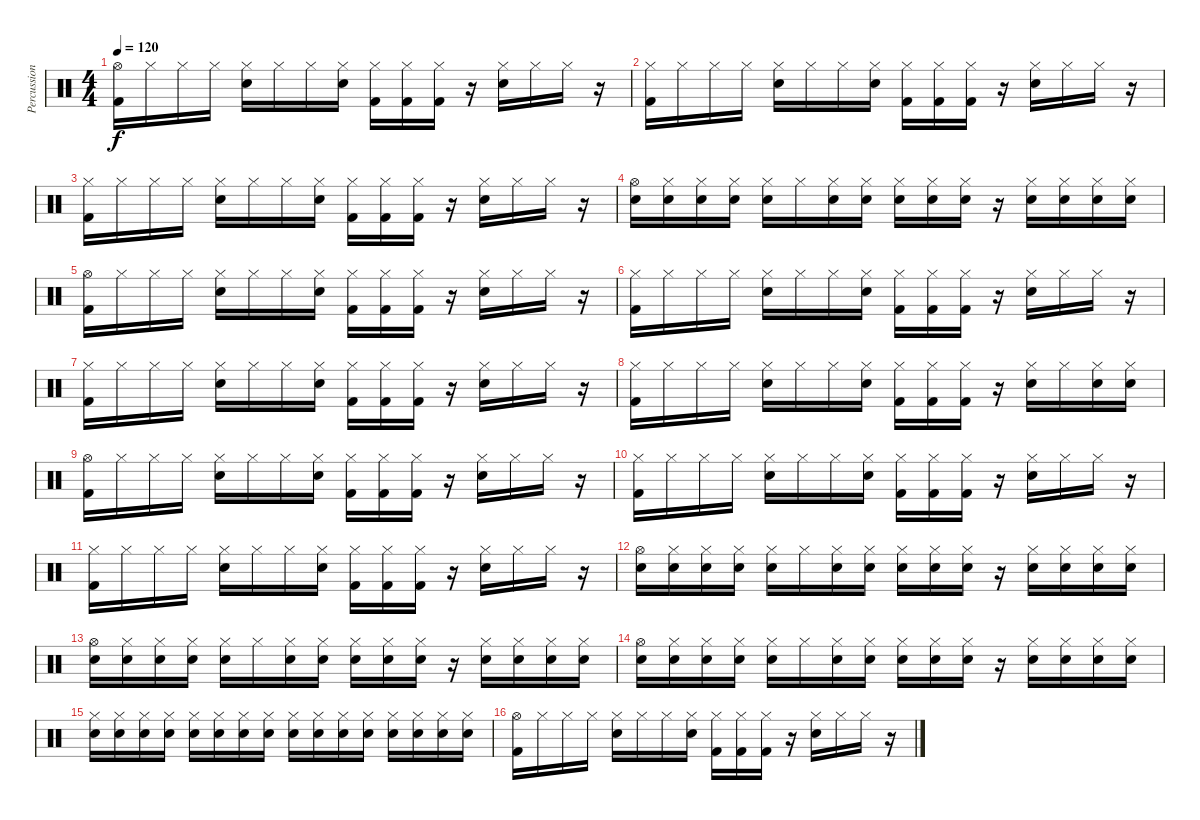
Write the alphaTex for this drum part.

\track ("Percussion" "Percussion") {instrument percussion}
\staff {score}
\articulation defaults
\ts (4 4)
\tempo 120
\clef neutral
\ks c
("Hi-Hat (open)" "Kick (hit) 2").16{dy f} "Hi-Hat (closed)".16 "Hi-Hat (closed)".16 "Hi-Hat (closed)".16 ("Hi-Hat (closed)" "Snare (hit) 2").16 "Hi-Hat (closed)".16 "Hi-Hat (closed)".16 ("Hi-Hat (closed)" "Snare (hit) 2").16 ("Hi-Hat (closed)" "Kick (hit) 2").16 ("Hi-Hat (closed)" "Kick (hit) 2").16 ("Hi-Hat (closed)" "Kick (hit) 2").16 r.16 ("Hi-Hat (closed)" "Snare (hit) 2").16 "Hi-Hat (closed)".16 "Hi-Hat (closed)".16 r.16 |
("Hi-Hat (closed)" "Kick (hit) 2").16 "Hi-Hat (closed)".16 "Hi-Hat (closed)".16 "Hi-Hat (closed)".16 ("Hi-Hat (closed)" "Snare (hit) 2").16 "Hi-Hat (closed)".16 "Hi-Hat (closed)".16 ("Hi-Hat (closed)" "Snare (hit) 2").16 ("Hi-Hat (closed)" "Kick (hit) 2").16 ("Hi-Hat (closed)" "Kick (hit) 2").16 ("Hi-Hat (closed)" "Kick (hit) 2").16 r.16 ("Hi-Hat (closed)" "Snare (hit) 2").16 "Hi-Hat (closed)".16 "Hi-Hat (closed)".16 r.16 |
("Hi-Hat (closed)" "Kick (hit) 2").16 "Hi-Hat (closed)".16 "Hi-Hat (closed)".16 "Hi-Hat (closed)".16 ("Hi-Hat (closed)" "Snare (hit) 2").16 "Hi-Hat (closed)".16 "Hi-Hat (closed)".16 ("Hi-Hat (closed)" "Snare (hit) 2").16 ("Hi-Hat (closed)" "Kick (hit) 2").16 ("Hi-Hat (closed)" "Kick (hit) 2").16 ("Hi-Hat (closed)" "Kick (hit) 2").16 r.16 ("Hi-Hat (closed)" "Snare (hit) 2").16 "Hi-Hat (closed)".16 "Hi-Hat (closed)".16 r.16 |
("Hi-Hat (open)" "Snare (hit) 2").16 ("Hi-Hat (closed)" "Snare (hit) 2").16 ("Hi-Hat (closed)" "Snare (hit) 2").16 ("Hi-Hat (closed)" "Snare (hit) 2").16 ("Hi-Hat (closed)" "Snare (hit) 2").16 "Hi-Hat (closed)".16 ("Hi-Hat (closed)" "Snare (hit) 2").16 ("Hi-Hat (closed)" "Snare (hit) 2").16 ("Hi-Hat (closed)" "Snare (hit) 2").16 ("Hi-Hat (closed)" "Snare (hit) 2").16 ("Hi-Hat (closed)" "Snare (hit) 2").16 r.16 ("Hi-Hat (closed)" "Snare (hit) 2").16 ("Hi-Hat (closed)" "Snare (hit) 2").16 ("Hi-Hat (closed)" "Snare (hit) 2").16 ("Hi-Hat (closed)" "Snare (hit) 2").16 |
("Hi-Hat (open)" "Kick (hit) 2").16 "Hi-Hat (closed)".16 "Hi-Hat (closed)".16 "Hi-Hat (closed)".16 ("Hi-Hat (closed)" "Snare (hit) 2").16 "Hi-Hat (closed)".16 "Hi-Hat (closed)".16 ("Hi-Hat (closed)" "Snare (hit) 2").16 ("Hi-Hat (closed)" "Kick (hit) 2").16 ("Hi-Hat (closed)" "Kick (hit) 2").16 ("Hi-Hat (closed)" "Kick (hit) 2").16 r.16 ("Hi-Hat (closed)" "Snare (hit) 2").16 "Hi-Hat (closed)".16 "Hi-Hat (closed)".16 r.16 |
("Hi-Hat (closed)" "Kick (hit) 2").16 "Hi-Hat (closed)".16 "Hi-Hat (closed)".16 "Hi-Hat (closed)".16 ("Hi-Hat (closed)" "Snare (hit) 2").16 "Hi-Hat (closed)".16 "Hi-Hat (closed)".16 ("Hi-Hat (closed)" "Snare (hit) 2").16 ("Hi-Hat (closed)" "Kick (hit) 2").16 ("Hi-Hat (closed)" "Kick (hit) 2").16 ("Hi-Hat (closed)" "Kick (hit) 2").16 r.16 ("Hi-Hat (closed)" "Snare (hit) 2").16 "Hi-Hat (closed)".16 "Hi-Hat (closed)".16 r.16 |
("Hi-Hat (closed)" "Kick (hit) 2").16 "Hi-Hat (closed)".16 "Hi-Hat (closed)".16 "Hi-Hat (closed)".16 ("Hi-Hat (closed)" "Snare (hit) 2").16 "Hi-Hat (closed)".16 "Hi-Hat (closed)".16 ("Hi-Hat (closed)" "Snare (hit) 2").16 ("Hi-Hat (closed)" "Kick (hit) 2").16 ("Hi-Hat (closed)" "Kick (hit) 2").16 ("Hi-Hat (closed)" "Kick (hit) 2").16 r.16 ("Hi-Hat (closed)" "Snare (hit) 2").16 "Hi-Hat (closed)".16 "Hi-Hat (closed)".16 r.16 |
("Hi-Hat (closed)" "Kick (hit) 2").16 "Hi-Hat (closed)".16 "Hi-Hat (closed)".16 "Hi-Hat (closed)".16 ("Hi-Hat (closed)" "Snare (hit) 2").16 "Hi-Hat (closed)".16 "Hi-Hat (closed)".16 ("Hi-Hat (closed)" "Snare (hit) 2").16 ("Hi-Hat (closed)" "Kick (hit) 2").16 ("Hi-Hat (closed)" "Kick (hit) 2").16 ("Hi-Hat (closed)" "Kick (hit) 2").16 r.16 ("Hi-Hat (closed)" "Snare (hit) 2").16 "Hi-Hat (closed)".16 ("Hi-Hat (closed)" "Snare (hit) 2").16 ("Hi-Hat (closed)" "Snare (hit) 2").16 |
("Hi-Hat (open)" "Kick (hit) 2").16 "Hi-Hat (closed)".16 "Hi-Hat (closed)".16 "Hi-Hat (closed)".16 ("Hi-Hat (closed)" "Snare (hit) 2").16 "Hi-Hat (closed)".16 "Hi-Hat (closed)".16 ("Hi-Hat (closed)" "Snare (hit) 2").16 ("Hi-Hat (closed)" "Kick (hit) 2").16 ("Hi-Hat (closed)" "Kick (hit) 2").16 ("Hi-Hat (closed)" "Kick (hit) 2").16 r.16 ("Hi-Hat (closed)" "Snare (hit) 2").16 "Hi-Hat (closed)".16 "Hi-Hat (closed)".16 r.16 |
("Hi-Hat (closed)" "Kick (hit) 2").16 "Hi-Hat (closed)".16 "Hi-Hat (closed)".16 "Hi-Hat (closed)".16 ("Hi-Hat (closed)" "Snare (hit) 2").16 "Hi-Hat (closed)".16 "Hi-Hat (closed)".16 ("Hi-Hat (closed)" "Snare (hit) 2").16 ("Hi-Hat (closed)" "Kick (hit) 2").16 ("Hi-Hat (closed)" "Kick (hit) 2").16 ("Hi-Hat (closed)" "Kick (hit) 2").16 r.16 ("Hi-Hat (closed)" "Snare (hit) 2").16 "Hi-Hat (closed)".16 "Hi-Hat (closed)".16 r.16 |
("Hi-Hat (closed)" "Kick (hit) 2").16 "Hi-Hat (closed)".16 "Hi-Hat (closed)".16 "Hi-Hat (closed)".16 ("Hi-Hat (closed)" "Snare (hit) 2").16 "Hi-Hat (closed)".16 "Hi-Hat (closed)".16 ("Hi-Hat (closed)" "Snare (hit) 2").16 ("Hi-Hat (closed)" "Kick (hit) 2").16 ("Hi-Hat (closed)" "Kick (hit) 2").16 ("Hi-Hat (closed)" "Kick (hit) 2").16 r.16 ("Hi-Hat (closed)" "Snare (hit) 2").16 "Hi-Hat (closed)".16 "Hi-Hat (closed)".16 r.16 |
("Hi-Hat (open)" "Snare (hit) 2").16 ("Hi-Hat (closed)" "Snare (hit) 2").16 ("Hi-Hat (closed)" "Snare (hit) 2").16 ("Hi-Hat (closed)" "Snare (hit) 2").16 ("Hi-Hat (closed)" "Snare (hit) 2").16 "Hi-Hat (closed)".16 ("Hi-Hat (closed)" "Snare (hit) 2").16 ("Hi-Hat (closed)" "Snare (hit) 2").16 ("Hi-Hat (closed)" "Snare (hit) 2").16 ("Hi-Hat (closed)" "Snare (hit) 2").16 ("Hi-Hat (closed)" "Snare (hit) 2").16 r.16 ("Hi-Hat (closed)" "Snare (hit) 2").16 ("Hi-Hat (closed)" "Snare (hit) 2").16 ("Hi-Hat (closed)" "Snare (hit) 2").16 ("Hi-Hat (closed)" "Snare (hit) 2").16 |
("Hi-Hat (open)" "Snare (hit) 2").16 ("Hi-Hat (closed)" "Snare (hit) 2").16 ("Hi-Hat (closed)" "Snare (hit) 2").16 ("Hi-Hat (closed)" "Snare (hit) 2").16 ("Hi-Hat (closed)" "Snare (hit) 2").16 "Hi-Hat (closed)".16 ("Hi-Hat (closed)" "Snare (hit) 2").16 ("Hi-Hat (closed)" "Snare (hit) 2").16 ("Hi-Hat (closed)" "Snare (hit) 2").16 ("Hi-Hat (closed)" "Snare (hit) 2").16 ("Hi-Hat (closed)" "Snare (hit) 2").16 r.16 ("Hi-Hat (closed)" "Snare (hit) 2").16 ("Hi-Hat (closed)" "Snare (hit) 2").16 ("Hi-Hat (closed)" "Snare (hit) 2").16 ("Hi-Hat (closed)" "Snare (hit) 2").16 |
("Hi-Hat (open)" "Snare (hit) 2").16 ("Hi-Hat (closed)" "Snare (hit) 2").16 ("Hi-Hat (closed)" "Snare (hit) 2").16 ("Hi-Hat (closed)" "Snare (hit) 2").16 ("Hi-Hat (closed)" "Snare (hit) 2").16 "Hi-Hat (closed)".16 ("Hi-Hat (closed)" "Snare (hit) 2").16 ("Hi-Hat (closed)" "Snare (hit) 2").16 ("Hi-Hat (closed)" "Snare (hit) 2").16 ("Hi-Hat (closed)" "Snare (hit) 2").16 ("Hi-Hat (closed)" "Snare (hit) 2").16 r.16 ("Hi-Hat (closed)" "Snare (hit) 2").16 ("Hi-Hat (closed)" "Snare (hit) 2").16 ("Hi-Hat (closed)" "Snare (hit) 2").16 ("Hi-Hat (closed)" "Snare (hit) 2").16 |
("Hi-Hat (closed)" "Snare (hit) 2").16 ("Hi-Hat (closed)" "Snare (hit) 2").16 ("Hi-Hat (closed)" "Snare (hit) 2").16 ("Hi-Hat (closed)" "Snare (hit) 2").16 ("Hi-Hat (closed)" "Snare (hit) 2").16 ("Hi-Hat (closed)" "Snare (hit) 2").16 ("Hi-Hat (closed)" "Snare (hit) 2").16 ("Hi-Hat (closed)" "Snare (hit) 2").16 ("Hi-Hat (closed)" "Snare (hit) 2").16 ("Hi-Hat (closed)" "Snare (hit) 2").16 ("Hi-Hat (closed)" "Snare (hit) 2").16 ("Hi-Hat (closed)" "Snare (hit) 2").16 ("Hi-Hat (closed)" "Snare (hit) 2").16 ("Hi-Hat (closed)" "Snare (hit) 2").16 ("Hi-Hat (closed)" "Snare (hit) 2").16 ("Hi-Hat (closed)" "Snare (hit) 2").16 |
("Hi-Hat (open)" "Kick (hit) 2").16 "Hi-Hat (closed)".16 "Hi-Hat (closed)".16 "Hi-Hat (closed)".16 ("Hi-Hat (closed)" "Snare (hit) 2").16 "Hi-Hat (closed)".16 "Hi-Hat (closed)".16 ("Hi-Hat (closed)" "Snare (hit) 2").16 ("Hi-Hat (closed)" "Kick (hit) 2").16 ("Hi-Hat (closed)" "Kick (hit) 2").16 ("Hi-Hat (closed)" "Kick (hit) 2").16 r.16 ("Hi-Hat (closed)" "Snare (hit) 2").16 "Hi-Hat (closed)".16 "Hi-Hat (closed)".16 r.16
